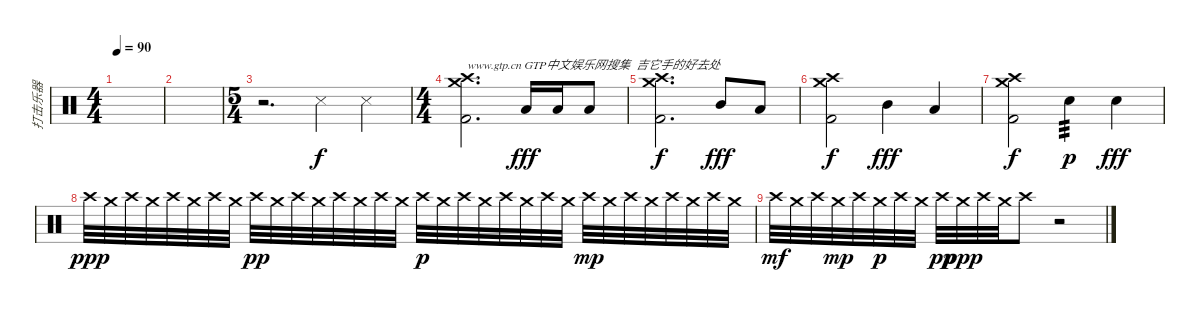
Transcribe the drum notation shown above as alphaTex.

\track ("打击乐器" "打击乐器") {instrument percussion}
\staff {score}
\articulation defaults
\ts (4 4)
\tempo 90
\clef neutral
\ks c
|
|
\ts (5 4)
r.2{d} "Snare (side stick) 3".4 "Snare (side stick) 3".4 |
\ts (4 4)
("Crash high (hit)" "Crash medium (hit)" "Kick (hit) 2").2{d txt "www.gtp.cn GTP中文娱乐网搜集  吉它手的好去处"} "Low Floor Tom (hit)".16{dy fff} "Low Floor Tom (hit)".16 "Low Floor Tom (hit)".8 |
("Crash high (hit)" "Crash medium (hit)" "Kick (hit) 2").2{d dy f} "Mid Tom (hit)".8{dy fff} "Low Tom (hit)".8 |
("Crash high (hit)" "Crash medium (hit)" "Kick (hit) 2").2{dy f} "Mid Tom (hit)".4{dy fff} "Low Tom (hit)".4 |
("Crash high (hit)" "Crash medium (hit)" "Kick (hit) 2").2{dy f} "Snare (hit) 2".4{tp 3 dy p} "Snare (hit) 2".4{dy fff} |
"Crash high (hit)".32{dy ppp} "Crash medium (hit)".32 "Crash high (hit)".32 "Crash medium (hit)".32 "Crash high (hit)".32 "Crash medium (hit)".32 "Crash high (hit)".32 "Crash medium (hit)".32 "Crash high (hit)".32{dy pp} "Crash medium (hit)".32 "Crash high (hit)".32 "Crash medium (hit)".32 "Crash high (hit)".32 "Crash medium (hit)".32 "Crash high (hit)".32 "Crash medium (hit)".32 "Crash high (hit)".32{dy p} "Crash medium (hit)".32 "Crash high (hit)".32 "Crash medium (hit)".32 "Crash high (hit)".32 "Crash medium (hit)".32 "Crash high (hit)".32 "Crash medium (hit)".32 "Crash high (hit)".32{dy mp} "Crash medium (hit)".32 "Crash high (hit)".32 "Crash medium (hit)".32 "Crash high (hit)".32 "Crash medium (hit)".32 "Crash high (hit)".32 "Crash medium (hit)".32 |
"Crash high (hit)".32{dy mf} "Crash medium (hit)".32 "Crash high (hit)".32 "Crash medium (hit)".32{dy mp} "Crash high (hit)".32 "Crash medium (hit)".32{dy p} "Crash high (hit)".32 "Crash medium (hit)".32 "Crash high (hit)".32{dy pp} "Crash medium (hit)".32{dy ppp} "Crash high (hit)".32 "Crash medium (hit)".32 "Crash high (hit)".8 r.2
